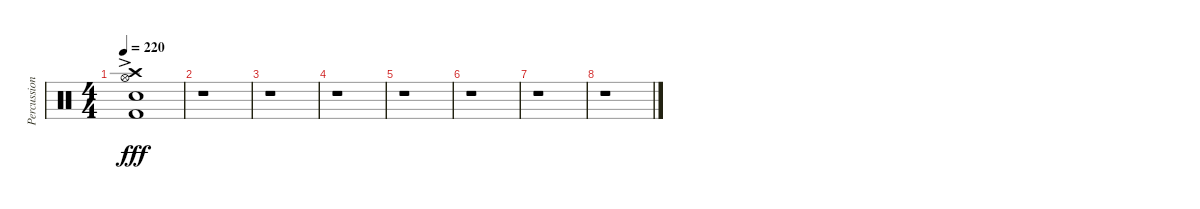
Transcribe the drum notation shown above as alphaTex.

\track ("Percussion" "Percussion") {instrument percussion}
\staff {score}
\articulation defaults
\ts (4 4)
\tempo 220
\clef neutral
\ks c
("Crash high (hit)"{ac} "Hi-Hat (open)"{ac} "Electric Snare (hit)"{ac} "Kick (hit) 2"{ac}).1{dy fff} |
r.1 |
r.1 |
r.1 |
r.1 |
r.1 |
r.1 |
r.1
